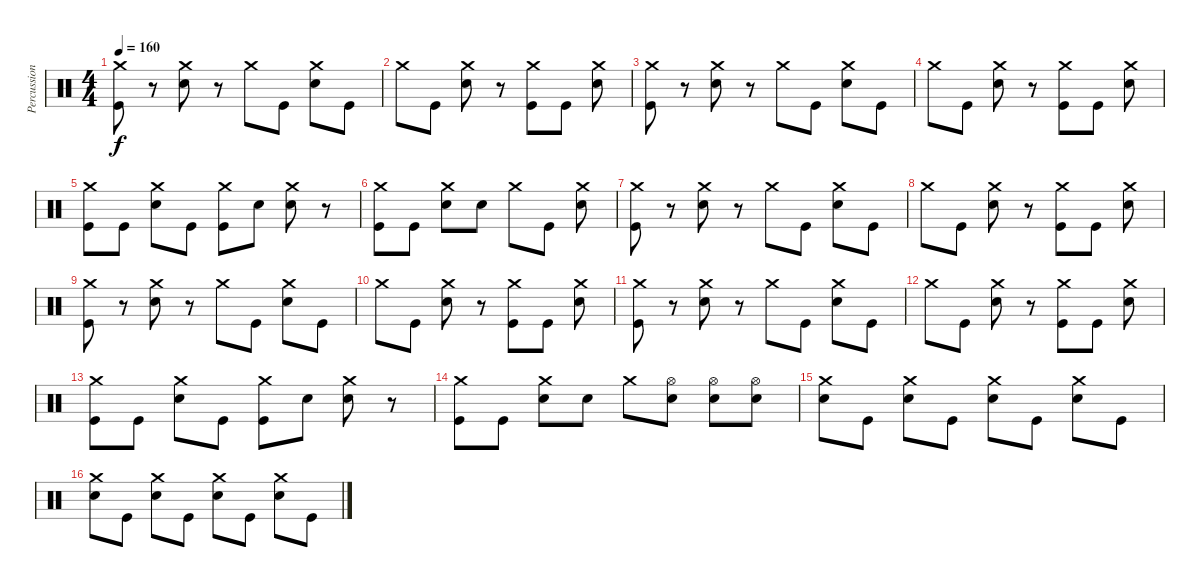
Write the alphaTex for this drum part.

\track ("Percussion" "Percussion") {instrument percussion}
\staff {score}
\articulation defaults
\ts (4 4)
\tempo 160
\clef neutral
\ks c
("Crash medium (hit)" "Kick (hit)").8{dy f} r.8 ("Crash medium (hit)" "Electric Snare (hit)").8 r.8 "Crash medium (hit)".8 "Kick (hit)".8 ("Crash medium (hit)" "Electric Snare (hit)").8 "Kick (hit)".8 |
"Crash medium (hit)".8 "Kick (hit)".8 ("Crash medium (hit)" "Electric Snare (hit)").8 r.8 ("Crash medium (hit)" "Kick (hit)").8 "Kick (hit)".8 ("Crash medium (hit)" "Electric Snare (hit)").8 |
("Crash medium (hit)" "Kick (hit)").8 r.8 ("Crash medium (hit)" "Electric Snare (hit)").8 r.8 "Crash medium (hit)".8 "Kick (hit)".8 ("Crash medium (hit)" "Electric Snare (hit)").8 "Kick (hit)".8 |
"Crash medium (hit)".8 "Kick (hit)".8 ("Crash medium (hit)" "Electric Snare (hit)").8 r.8 ("Crash medium (hit)" "Kick (hit)").8 "Kick (hit)".8 ("Crash medium (hit)" "Electric Snare (hit)").8 |
("Crash medium (hit)" "Kick (hit)").8 "Kick (hit)".8 ("Crash medium (hit)" "Electric Snare (hit)").8 "Kick (hit)".8 ("Crash medium (hit)" "Kick (hit)").8 "Electric Snare (hit)".8 ("Crash medium (hit)" "Electric Snare (hit)").8 r.8 |
("Crash medium (hit)" "Kick (hit)").8 "Kick (hit)".8 ("Crash medium (hit)" "Electric Snare (hit)").8 "Electric Snare (hit)".8 "Crash medium (hit)".8 "Kick (hit)".8 ("Crash medium (hit)" "Electric Snare (hit)").8 |
("Crash medium (hit)" "Kick (hit)").8 r.8 ("Crash medium (hit)" "Electric Snare (hit)").8 r.8 "Crash medium (hit)".8 "Kick (hit)".8 ("Crash medium (hit)" "Electric Snare (hit)").8 "Kick (hit)".8 |
"Crash medium (hit)".8 "Kick (hit)".8 ("Crash medium (hit)" "Electric Snare (hit)").8 r.8 ("Crash medium (hit)" "Kick (hit)").8 "Kick (hit)".8 ("Crash medium (hit)" "Electric Snare (hit)").8 |
("Crash medium (hit)" "Kick (hit)").8 r.8 ("Crash medium (hit)" "Electric Snare (hit)").8 r.8 "Crash medium (hit)".8 "Kick (hit)".8 ("Crash medium (hit)" "Electric Snare (hit)").8 "Kick (hit)".8 |
"Crash medium (hit)".8 "Kick (hit)".8 ("Crash medium (hit)" "Electric Snare (hit)").8 r.8 ("Crash medium (hit)" "Kick (hit)").8 "Kick (hit)".8 ("Crash medium (hit)" "Electric Snare (hit)").8 |
("Crash medium (hit)" "Kick (hit)").8 r.8 ("Crash medium (hit)" "Electric Snare (hit)").8 r.8 "Crash medium (hit)".8 "Kick (hit)".8 ("Crash medium (hit)" "Electric Snare (hit)").8 "Kick (hit)".8 |
"Crash medium (hit)".8 "Kick (hit)".8 ("Crash medium (hit)" "Electric Snare (hit)").8 r.8 ("Crash medium (hit)" "Kick (hit)").8 "Kick (hit)".8 ("Crash medium (hit)" "Electric Snare (hit)").8 |
("Crash medium (hit)" "Kick (hit)").8 "Kick (hit)".8 ("Crash medium (hit)" "Electric Snare (hit)").8 "Kick (hit)".8 ("Crash medium (hit)" "Kick (hit)").8 "Electric Snare (hit)".8 ("Crash medium (hit)" "Electric Snare (hit)").8 r.8 |
("Crash medium (hit)" "Kick (hit)").8 "Kick (hit)".8 ("Crash medium (hit)" "Electric Snare (hit)").8 "Electric Snare (hit)".8 "Crash medium (hit)".8 ("Hi-Hat (open)" "Electric Snare (hit)").8 ("Hi-Hat (open)" "Electric Snare (hit)").8 ("Hi-Hat (open)" "Electric Snare (hit)").8 |
("Crash medium (hit)" "Electric Snare (hit)").8 "Kick (hit)".8 ("Crash medium (hit)" "Electric Snare (hit)").8 "Kick (hit)".8 ("Crash medium (hit)" "Electric Snare (hit)").8 "Kick (hit)".8 ("Crash medium (hit)" "Electric Snare (hit)").8 "Kick (hit)".8 |
("Crash medium (hit)" "Electric Snare (hit)").8 "Kick (hit)".8 ("Crash medium (hit)" "Electric Snare (hit)").8 "Kick (hit)".8 ("Crash medium (hit)" "Electric Snare (hit)").8 "Kick (hit)".8 ("Crash medium (hit)" "Electric Snare (hit)").8 "Kick (hit)".8
